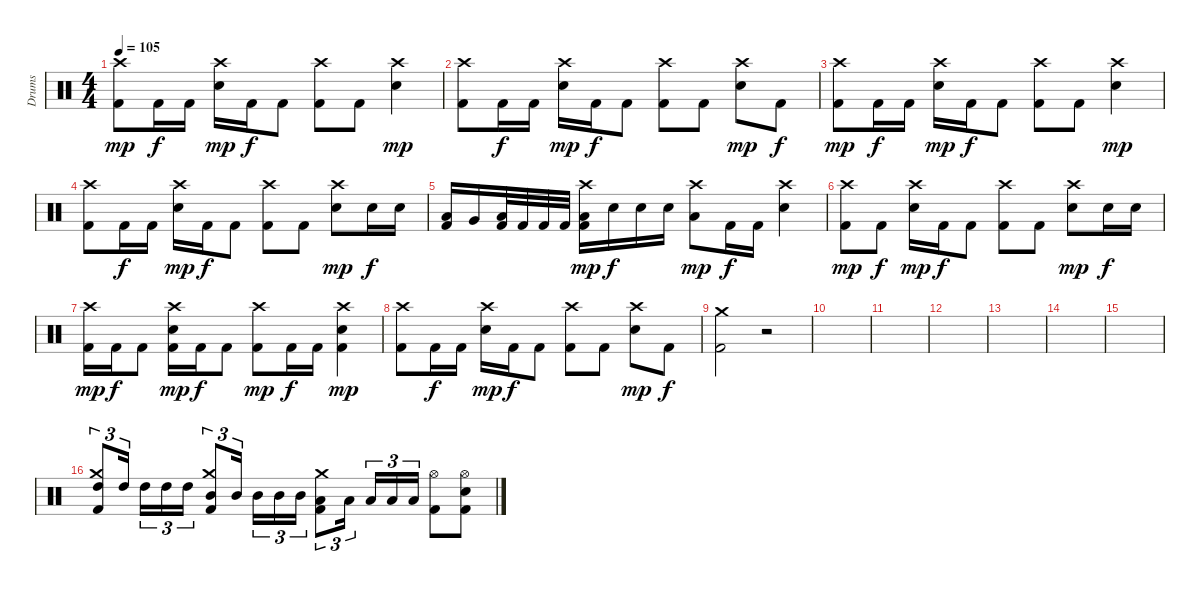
\track ("Drums" "Drums") {instrument percussion}
\staff {score}
\articulation defaults
\ts (4 4)
\tempo 105
\clef neutral
\ks c
("Crash high (hit)" "Kick (hit) 2").8{dy mp} "Kick (hit) 2".16{dy f} "Kick (hit) 2".16 ("Crash high (hit)" "Electric Snare (hit)").16{dy mp} "Kick (hit) 2".16{dy f} "Kick (hit) 2".8 ("Crash high (hit)" "Kick (hit) 2").8 "Kick (hit) 2".8 ("Crash high (hit)" "Electric Snare (hit)").4{dy mp} |
("Crash high (hit)" "Kick (hit) 2").8 "Kick (hit) 2".16{dy f} "Kick (hit) 2".16 ("Crash high (hit)" "Electric Snare (hit)").16{dy mp} "Kick (hit) 2".16{dy f} "Kick (hit) 2".8 ("Crash high (hit)" "Kick (hit) 2").8 "Kick (hit) 2".8 ("Crash high (hit)" "Electric Snare (hit)").8{dy mp} "Kick (hit) 2".8{dy f} |
("Crash high (hit)" "Kick (hit) 2").8{dy mp} "Kick (hit) 2".16{dy f} "Kick (hit) 2".16 ("Crash high (hit)" "Electric Snare (hit)").16{dy mp} "Kick (hit) 2".16{dy f} "Kick (hit) 2".8 ("Crash high (hit)" "Kick (hit) 2").8 "Kick (hit) 2".8 ("Crash high (hit)" "Electric Snare (hit)").4{dy mp} |
("Crash high (hit)" "Kick (hit) 2").8 "Kick (hit) 2".16{dy f} "Kick (hit) 2".16 ("Crash high (hit)" "Electric Snare (hit)").16{dy mp} "Kick (hit) 2".16{dy f} "Kick (hit) 2".8 ("Crash high (hit)" "Kick (hit) 2").8 "Kick (hit) 2".8 ("Crash high (hit)" "Electric Snare (hit)").8{dy mp} "Electric Snare (hit)".16{dy f} "Electric Snare (hit)".16 |
("Low Tom (hit)" "Kick (hit) 2").16 "Very Low Tom (hit)".16 ("Low Floor Tom (hit)" "Kick (hit) 2").32 "Kick (hit) 2".32 "Kick (hit) 2".32 "Kick (hit) 2".32 ("Crash high (hit)" "Low Floor Tom (hit)" "Kick (hit) 2").16{dy mp} "Electric Snare (hit)".16{dy f} "Electric Snare (hit)".16 "Electric Snare (hit)".16 ("Crash high (hit)" "Low Tom (hit)").8{dy mp} "Kick (hit) 2".16{dy f} "Kick (hit) 2".16 ("Crash high (hit)" "Electric Snare (hit)").4 |
("Crash high (hit)" "Kick (hit) 2").8{dy mp} "Kick (hit) 2".8{dy f} ("Crash high (hit)" "Electric Snare (hit)").16{dy mp} "Kick (hit) 2".16{dy f} "Kick (hit) 2".8 ("Crash high (hit)" "Kick (hit) 2").8 "Kick (hit) 2".8 ("Crash high (hit)" "Electric Snare (hit)").8{dy mp} "Electric Snare (hit)".16{dy f} "Electric Snare (hit)".16 |
("Crash high (hit)" "Kick (hit) 2").16{dy mp} "Kick (hit) 2".16{dy f} "Kick (hit) 2".8 ("Crash high (hit)" "Electric Snare (hit)" "Kick (hit) 2").16{dy mp} "Kick (hit) 2".16{dy f} "Kick (hit) 2".8 ("Crash high (hit)" "Kick (hit) 2").8{dy mp} "Kick (hit) 2".16{dy f} "Kick (hit) 2".16 ("Crash high (hit)" "Electric Snare (hit)" "Kick (hit) 2").4{dy mp} |
("Crash high (hit)" "Kick (hit) 2").8 "Kick (hit) 2".16{dy f} "Kick (hit) 2".16 ("Crash high (hit)" "Electric Snare (hit)").16{dy mp} "Kick (hit) 2".16{dy f} "Kick (hit) 2".8 ("Crash high (hit)" "Kick (hit) 2").8 "Kick (hit) 2".8 ("Crash high (hit)" "Electric Snare (hit)").8{dy mp} "Kick (hit) 2".8{dy f} |
("Crash medium (hit)" "Kick (hit) 2").2 r.2 |
|
|
|
|
|
|
("Crash medium (hit)" "High Tom (hit)" "Kick (hit) 2").8{tu (3 2)} "High Tom (hit)".16{tu (3 2)} "High Tom (hit)".16{tu (3 2)} "High Tom (hit)".16{tu (3 2)} "High Tom (hit)".16{tu (3 2)} ("Crash medium (hit)" "Mid Tom (hit)" "Kick (hit) 2").8{tu (3 2)} "Mid Tom (hit)".16{tu (3 2)} "Mid Tom (hit)".16{tu (3 2)} "Mid Tom (hit)".16{tu (3 2)} "Mid Tom (hit)".16{tu (3 2)} ("Crash medium (hit)" "Low Tom (hit)" "Kick (hit) 2").8{tu (3 2)} "Low Tom (hit)".16{tu (3 2)} "Low Tom (hit)".16{tu (3 2)} "Low Tom (hit)".16{tu (3 2)} "Low Tom (hit)".16{tu (3 2)} ("Hi-Hat (open)" "Kick (hit) 2").8 ("Hi-Hat (open)" "Electric Snare (hit)" "Kick (hit) 2").8
